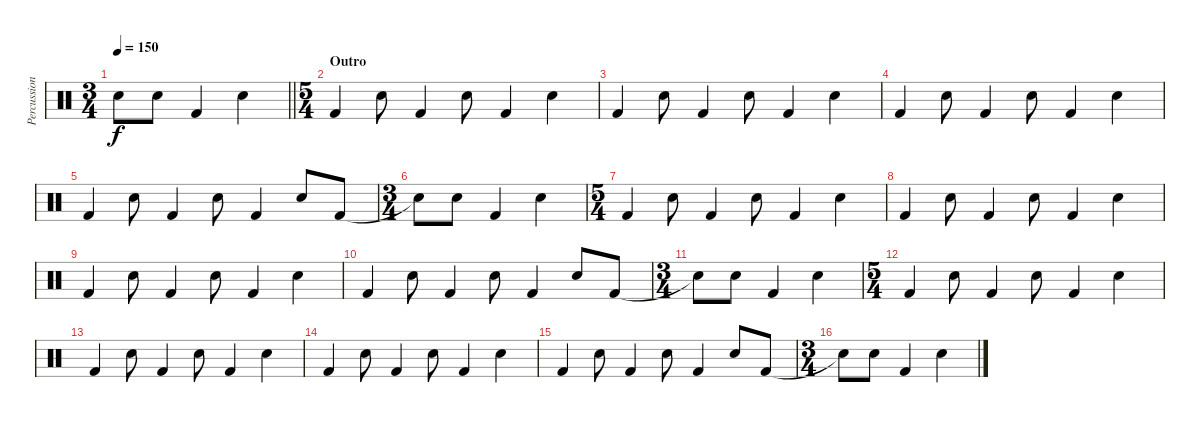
\track ("Percussion" "Percussion") {instrument percussion}
\staff {score}
\articulation defaults
\ts (3 4)
\tempo 150
\clef neutral
\barLineRight lightlight
\ks c "Snare (hit)"{t}.8{dy f} "Snare (hit) 2".8 "Kick (hit) 2".4 "Snare (hit) 2".4
|
\ts (5 4)
\section ("" "Outro")
"Kick (hit) 2".4 "Snare (hit) 2".8 "Kick (hit) 2".4 "Snare (hit) 2".8 "Kick (hit) 2".4 "Snare (hit) 2".4 |
"Kick (hit) 2".4 "Snare (hit) 2".8 "Kick (hit) 2".4 "Snare (hit) 2".8 "Kick (hit) 2".4 "Snare (hit) 2".4 |
"Kick (hit) 2".4 "Snare (hit) 2".8 "Kick (hit) 2".4 "Snare (hit) 2".8 "Kick (hit) 2".4 "Snare (hit) 2".4 |
"Kick (hit) 2".4 "Snare (hit) 2".8 "Kick (hit) 2".4 "Snare (hit) 2".8 "Kick (hit) 2".4 "Snare (hit) 2".8 "Kick (hit) 2".8 |
\ts (3 4)
"Snare (hit)"{t}.8 "Snare (hit) 2".8 "Kick (hit) 2".4 "Snare (hit) 2".4 |
\ts (5 4)
"Kick (hit) 2".4 "Snare (hit) 2".8 "Kick (hit) 2".4 "Snare (hit) 2".8 "Kick (hit) 2".4 "Snare (hit) 2".4 |
"Kick (hit) 2".4 "Snare (hit) 2".8 "Kick (hit) 2".4 "Snare (hit) 2".8 "Kick (hit) 2".4 "Snare (hit) 2".4 |
"Kick (hit) 2".4 "Snare (hit) 2".8 "Kick (hit) 2".4 "Snare (hit) 2".8 "Kick (hit) 2".4 "Snare (hit) 2".4 |
"Kick (hit) 2".4 "Snare (hit) 2".8 "Kick (hit) 2".4 "Snare (hit) 2".8 "Kick (hit) 2".4 "Snare (hit) 2".8 "Kick (hit) 2".8 |
\ts (3 4)
"Snare (hit)"{t}.8 "Snare (hit) 2".8 "Kick (hit) 2".4 "Snare (hit) 2".4 |
\ts (5 4)
"Kick (hit) 2".4 "Snare (hit) 2".8 "Kick (hit) 2".4 "Snare (hit) 2".8 "Kick (hit) 2".4 "Snare (hit) 2".4 |
"Kick (hit) 2".4 "Snare (hit) 2".8 "Kick (hit) 2".4 "Snare (hit) 2".8 "Kick (hit) 2".4 "Snare (hit) 2".4 |
"Kick (hit) 2".4 "Snare (hit) 2".8 "Kick (hit) 2".4 "Snare (hit) 2".8 "Kick (hit) 2".4 "Snare (hit) 2".4 |
"Kick (hit) 2".4 "Snare (hit) 2".8 "Kick (hit) 2".4 "Snare (hit) 2".8 "Kick (hit) 2".4 "Snare (hit) 2".8 "Kick (hit) 2".8 |
\ts (3 4)
"Snare (hit)"{t}.8 "Snare (hit) 2".8 "Kick (hit) 2".4 "Snare (hit) 2".4
